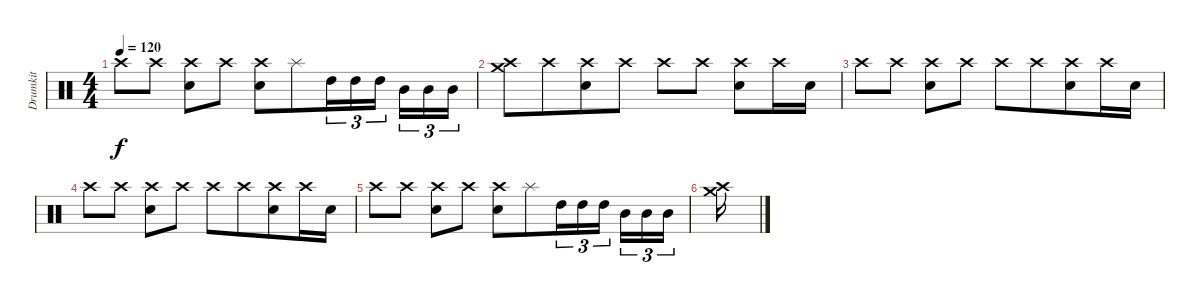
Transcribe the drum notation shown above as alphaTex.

\track ("Drumkit" "Drumkit") {instrument percussion}
\staff {score}
\articulation defaults
\ts (4 4)
\tempo 120
\clef neutral
\ks c "Crash high (hit)".8{dy f beam merge} "Crash high (hit)".8
("Crash high (hit)" "Electric Snare (hit)").8 "Crash high (hit)".8 ("Crash high (hit)" "Electric Snare (hit)").8 "Splash (hit)".8{beam merge} "High Tom (hit)".16{tu (3 2)} "High Tom (hit)".16{tu (3 2) beam merge} "High Tom (hit)".16{tu (3 2) beam splitsecondary} "Mid Tom (hit)".16{tu (3 2) beam merge} "Mid Tom (hit)".16{tu (3 2)} "Mid Tom (hit)".16{tu (3 2)} |
("Crash medium (hit)" "Crash high (hit)").8 "Crash high (hit)".8{beam merge} ("Crash high (hit)" "Electric Snare (hit)").8 "Crash high (hit)".8 "Crash high (hit)".8 "Crash high (hit)".8 ("Crash high (hit)" "Electric Snare (hit)").8{beam merge} "Crash high (hit)".16 "Electric Snare (hit)".16 |
"Crash high (hit)".8{beam merge} "Crash high (hit)".8 ("Crash high (hit)" "Electric Snare (hit)").8 "Crash high (hit)".8 "Crash high (hit)".8 "Crash high (hit)".8{beam merge} ("Crash high (hit)" "Electric Snare (hit)").8 "Crash high (hit)".16{beam merge} "Electric Snare (hit)".16 |
"Crash high (hit)".8{beam merge} "Crash high (hit)".8 ("Crash high (hit)" "Electric Snare (hit)").8 "Crash high (hit)".8 "Crash high (hit)".8 "Crash high (hit)".8{beam merge} ("Crash high (hit)" "Electric Snare (hit)").8 "Crash high (hit)".16{beam merge} "Electric Snare (hit)".16 |
"Crash high (hit)".8{beam merge} "Crash high (hit)".8 ("Crash high (hit)" "Electric Snare (hit)").8 "Crash high (hit)".8 ("Crash high (hit)" "Electric Snare (hit)").8 "Splash (hit)".8{beam merge} "High Tom (hit)".16{tu (3 2)} "High Tom (hit)".16{tu (3 2) beam merge} "High Tom (hit)".16{tu (3 2) beam splitsecondary} "Mid Tom (hit)".16{tu (3 2) beam merge} "Mid Tom (hit)".16{tu (3 2)} "Mid Tom (hit)".16{tu (3 2)} |
("Crash high (hit)" "Crash medium (hit)").16
